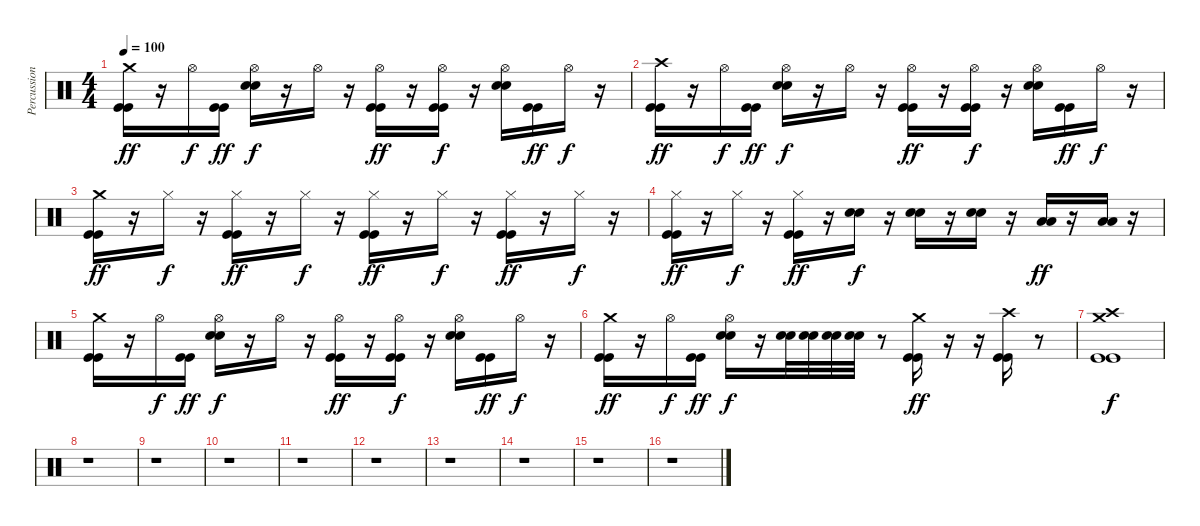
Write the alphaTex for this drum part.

\track ("Percussions" "Percussion") {instrument percussion}
\staff {score}
\articulation defaults
\ts (4 4)
\tempo 100
\clef neutral
\ks c
("Crash medium (hit)" "Kick (hit)" "Kick (hit)").16{dy ff} r.16 "Hi-Hat (open)".16{dy f} ("Kick (hit)" "Kick (hit)").16{dy ff} ("Hi-Hat (open)" "Electric Snare (hit)" "Electric Snare (hit)").16{dy f} r.16 "Hi-Hat (open)".16 r.16 ("Hi-Hat (open)" "Kick (hit)" "Kick (hit)").16{dy ff} r.16 ("Hi-Hat (open)" "Kick (hit)" "Kick (hit)").16{dy f} r.16 ("Hi-Hat (open)" "Electric Snare (hit)" "Electric Snare (hit)").16 ("Kick (hit)" "Kick (hit)").16{dy ff} "Hi-Hat (open)".16{dy f} r.16 |
("Crash high (hit)" "Kick (hit)" "Kick (hit)").16{dy ff} r.16 "Hi-Hat (open)".16{dy f} ("Kick (hit)" "Kick (hit)").16{dy ff} ("Hi-Hat (open)" "Electric Snare (hit)" "Electric Snare (hit)").16{dy f} r.16 "Hi-Hat (open)".16 r.16 ("Hi-Hat (open)" "Kick (hit)" "Kick (hit)").16{dy ff} r.16 ("Hi-Hat (open)" "Kick (hit)" "Kick (hit)").16{dy f} r.16 ("Hi-Hat (open)" "Electric Snare (hit)" "Electric Snare (hit)").16 ("Kick (hit)" "Kick (hit)").16{dy ff} "Hi-Hat (open)".16{dy f} r.16 |
("Crash medium (hit)" "Kick (hit)" "Kick (hit)").16{dy ff} r.16 "Hi-Hat (closed)".16{dy f} r.16 ("Hi-Hat (closed)" "Kick (hit)" "Kick (hit)").16{dy ff} r.16 "Hi-Hat (closed)".16{dy f} r.16 ("Hi-Hat (closed)" "Kick (hit)" "Kick (hit)").16{dy ff} r.16 "Hi-Hat (closed)".16{dy f} r.16 ("Hi-Hat (closed)" "Kick (hit)" "Kick (hit)").16{dy ff} r.16 "Hi-Hat (closed)".16{dy f} r.16 |
("Hi-Hat (closed)" "Kick (hit)" "Kick (hit)").16{dy ff} r.16 "Hi-Hat (closed)".16{dy f} r.16 ("Hi-Hat (closed)" "Kick (hit)" "Kick (hit)").16{dy ff} r.16 ("Electric Snare (hit)" "Electric Snare (hit)").16{dy f} r.16 ("Electric Snare (hit)" "Electric Snare (hit)").16 r.16 ("Electric Snare (hit)" "Electric Snare (hit)").16 r.16 ("Low Tom (hit)" "Low Tom (hit)").16{dy ff} r.16 ("Low Tom (hit)" "Low Tom (hit)").16 r.16 |
("Crash medium (hit)" "Kick (hit)" "Kick (hit)").16 r.16 "Hi-Hat (open)".16{dy f} ("Kick (hit)" "Kick (hit)").16{dy ff} ("Hi-Hat (open)" "Electric Snare (hit)" "Electric Snare (hit)").16{dy f} r.16 "Hi-Hat (open)".16 r.16 ("Hi-Hat (open)" "Kick (hit)" "Kick (hit)").16{dy ff} r.16 ("Hi-Hat (open)" "Kick (hit)" "Kick (hit)").16{dy f} r.16 ("Hi-Hat (open)" "Electric Snare (hit)" "Electric Snare (hit)").16 ("Kick (hit)" "Kick (hit)").16{dy ff} "Hi-Hat (open)".16{dy f} r.16 |
("Crash medium (hit)" "Kick (hit)" "Kick (hit)").16{dy ff} r.16 "Hi-Hat (open)".16{dy f} ("Kick (hit)" "Kick (hit)").16{dy ff} ("Hi-Hat (open)" "Electric Snare (hit)" "Electric Snare (hit)").16{dy f} r.16 ("Electric Snare (hit)" "Electric Snare (hit)").32 ("Electric Snare (hit)" "Electric Snare (hit)").32 ("Electric Snare (hit)" "Electric Snare (hit)").32 ("Electric Snare (hit)" "Electric Snare (hit)").32 r.8 ("Crash medium (hit)" "Kick (hit)" "Kick (hit)").16{dy ff} r.16 r.16 ("Crash high (hit)" "Kick (hit)" "Kick (hit)").16 r.8 |
("Crash medium (hit)" "Crash high (hit)" "Kick (hit)" "Kick (hit)").1{dy f} |
r.1 |
r.1 |
r.1 |
r.1 |
r.1 |
r.1 |
r.1 |
r.1 |
r.1
